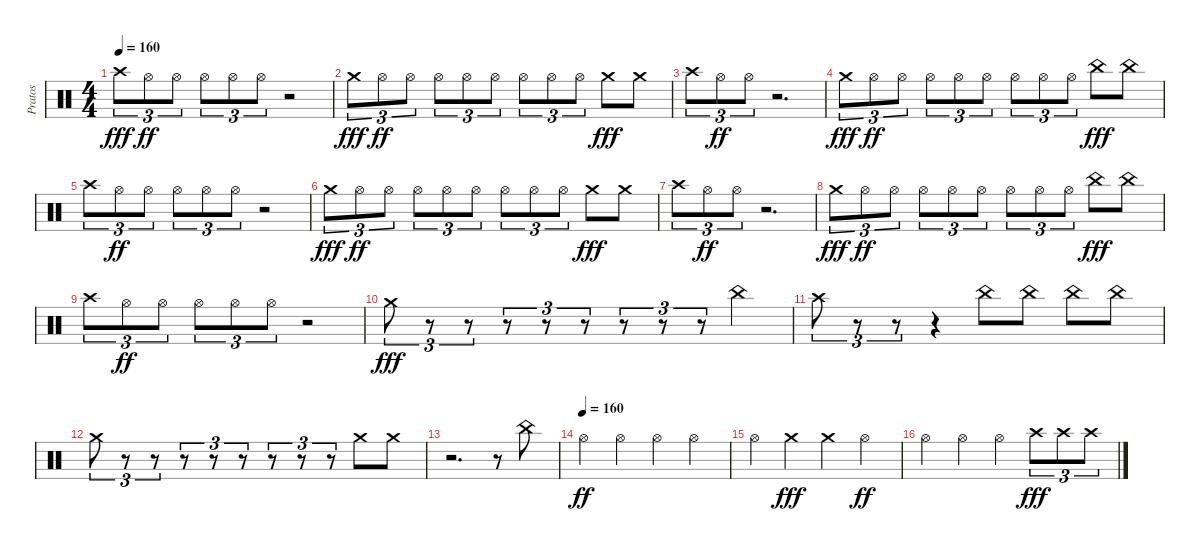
\track ("Pratos" "Pratos") {instrument percussion}
\staff {score}
\articulation defaults
\ts (4 4)
\tempo 160
\clef neutral
\ks c "Crash high (hit)".8{tu (3 2) dy fff} "Hi-Hat (open)".8{tu (3 2) dy ff} "Hi-Hat (open)".8{tu (3 2)} "Hi-Hat (open)".8{tu (3 2)} "Hi-Hat (open)".8{tu (3 2)} "Hi-Hat (open)".8{tu (3 2)}
r.2 |
"Crash medium (hit)".8{tu (3 2) dy fff} "Hi-Hat (open)".8{tu (3 2) dy ff} "Hi-Hat (open)".8{tu (3 2)} "Hi-Hat (open)".8{tu (3 2)} "Hi-Hat (open)".8{tu (3 2)} "Hi-Hat (open)".8{tu (3 2)} "Hi-Hat (open)".8{tu (3 2)} "Hi-Hat (open)".8{tu (3 2)} "Hi-Hat (open)".8{tu (3 2)} "Crash medium (hit)".8{dy fff} "Crash medium (hit)".8 |
"Crash high (hit)".8{tu (3 2)} "Hi-Hat (open)".8{tu (3 2) dy ff} "Hi-Hat (open)".8{tu (3 2)} r.2{d} |
"Crash medium (hit)".8{tu (3 2) dy fff} "Hi-Hat (open)".8{tu (3 2) dy ff} "Hi-Hat (open)".8{tu (3 2)} "Hi-Hat (open)".8{tu (3 2)} "Hi-Hat (open)".8{tu (3 2)} "Hi-Hat (open)".8{tu (3 2)} "Hi-Hat (open)".8{tu (3 2)} "Hi-Hat (open)".8{tu (3 2)} "Hi-Hat (open)".8{tu (3 2)} "China (hit)".8{dy fff} "China (hit)".8 |
"Crash high (hit)".8{tu (3 2)} "Hi-Hat (open)".8{tu (3 2) dy ff} "Hi-Hat (open)".8{tu (3 2)} "Hi-Hat (open)".8{tu (3 2)} "Hi-Hat (open)".8{tu (3 2)} "Hi-Hat (open)".8{tu (3 2)} r.2 |
"Crash medium (hit)".8{tu (3 2) dy fff} "Hi-Hat (open)".8{tu (3 2) dy ff} "Hi-Hat (open)".8{tu (3 2)} "Hi-Hat (open)".8{tu (3 2)} "Hi-Hat (open)".8{tu (3 2)} "Hi-Hat (open)".8{tu (3 2)} "Hi-Hat (open)".8{tu (3 2)} "Hi-Hat (open)".8{tu (3 2)} "Hi-Hat (open)".8{tu (3 2)} "Crash medium (hit)".8{dy fff} "Crash medium (hit)".8 |
"Crash high (hit)".8{tu (3 2)} "Hi-Hat (open)".8{tu (3 2) dy ff} "Hi-Hat (open)".8{tu (3 2)} r.2{d} |
"Crash medium (hit)".8{tu (3 2) dy fff} "Hi-Hat (open)".8{tu (3 2) dy ff} "Hi-Hat (open)".8{tu (3 2)} "Hi-Hat (open)".8{tu (3 2)} "Hi-Hat (open)".8{tu (3 2)} "Hi-Hat (open)".8{tu (3 2)} "Hi-Hat (open)".8{tu (3 2)} "Hi-Hat (open)".8{tu (3 2)} "Hi-Hat (open)".8{tu (3 2)} "China (hit)".8{dy fff} "China (hit)".8 |
"Crash high (hit)".8{tu (3 2)} "Hi-Hat (open)".8{tu (3 2) dy ff} "Hi-Hat (open)".8{tu (3 2)} "Hi-Hat (open)".8{tu (3 2)} "Hi-Hat (open)".8{tu (3 2)} "Hi-Hat (open)".8{tu (3 2)} r.2 |
"Crash medium (hit)".8{tu (3 2) dy fff} r.8{tu (3 2)} r.8{tu (3 2)} r.8{tu (3 2)} r.8{tu (3 2)} r.8{tu (3 2)} r.8{tu (3 2)} r.8{tu (3 2)} r.8{tu (3 2)} "China (hit)".4 |
"Crash high (hit)".8{tu (3 2)} r.8{tu (3 2)} r.8{tu (3 2)} r.4 "China (hit)".8 "China (hit)".8 "China (hit)".8 "China (hit)".8 |
"Crash medium (hit)".8{tu (3 2)} r.8{tu (3 2)} r.8{tu (3 2)} r.8{tu (3 2)} r.8{tu (3 2)} r.8{tu (3 2)} r.8{tu (3 2)} r.8{tu (3 2)} r.8{tu (3 2)} "Crash medium (hit)".8 "Crash medium (hit)".8 |
r.2{d} r.8 "China (hit)".8 |
\tempo (160)
"Hi-Hat (open)".4{dy ff} "Hi-Hat (open)".4 "Hi-Hat (open)".4 "Hi-Hat (open)".4 |
"Hi-Hat (open)".4 "Crash medium (hit)".4{dy fff} "Crash medium (hit)".4 "Hi-Hat (open)".4{dy ff} |
"Hi-Hat (open)".4 "Hi-Hat (open)".4 "Hi-Hat (open)".4 "Crash high (hit)".8{tu (3 2) dy fff} "Crash high (hit)".8{tu (3 2)} "Crash high (hit)".8{tu (3 2)}
